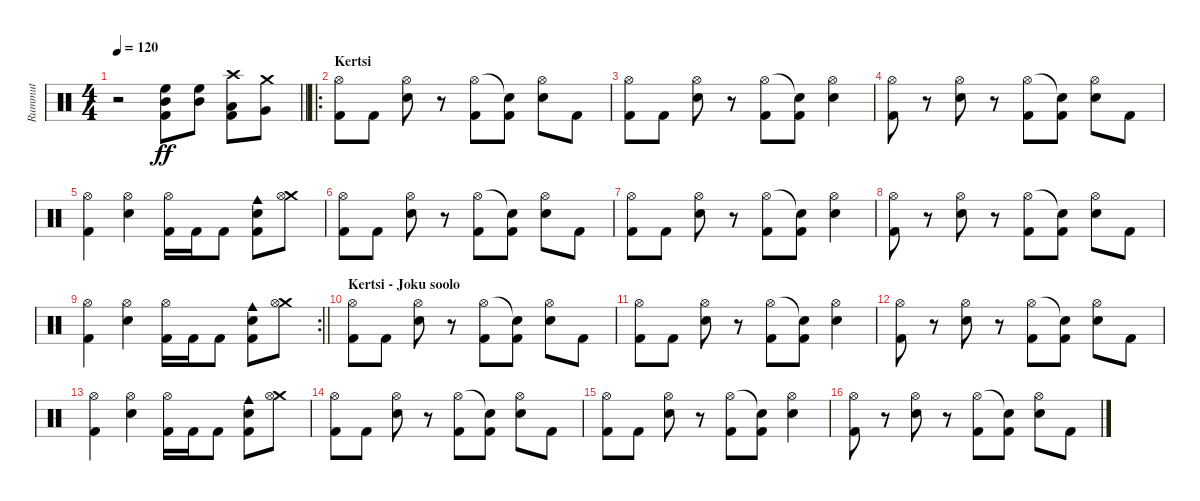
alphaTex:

\track ("Rummut" "Rummut") {instrument percussion}
\staff {score}
\articulation defaults
\ts (4 4)
\tempo 120
\clef neutral
\barLineRight lightlight
\ks c
r.2{dy f} ("Mid Tom (hit)" "High Floor Tom (hit)" "Kick (hit) 2").8{dy ff} ("Mid Tom (hit)" "High Floor Tom (hit)").8 ("Low Tom (hit)" "Kick (hit) 2" "Crash high (hit)").8 ("Very Low Tom (hit)" "Crash medium (hit)").8 |
\ro
\section ("" "Kertsi")
("Hi-Hat (open)" "Kick (hit) 2").8 "Kick (hit) 2".8 ("Hi-Hat (open)" "Snare (hit) 2").8 r.8 ("Hi-Hat (open)" "Kick (hit) 2").8 ("Snare (hit)"{t} "Kick (hit) 2").8 ("Hi-Hat (open)" "Snare (hit) 2").8 "Kick (hit) 2".8 |
("Hi-Hat (open)" "Kick (hit) 2").8 "Kick (hit) 2".8 ("Hi-Hat (open)" "Snare (hit) 2").8 r.8 ("Hi-Hat (open)" "Kick (hit) 2").8 ("Snare (hit)"{t} "Kick (hit) 2").8 ("Hi-Hat (open)" "Snare (hit) 2").4 |
("Hi-Hat (open)" "Kick (hit) 2").8 r.8 ("Hi-Hat (open)" "Snare (hit) 2").8 r.8 ("Hi-Hat (open)" "Kick (hit) 2").8 ("Snare (hit)"{t} "Kick (hit) 2").8 ("Hi-Hat (open)" "Snare (hit) 2").8 "Kick (hit) 2".8 |
("Hi-Hat (open)" "Kick (hit) 2").4 ("Hi-Hat (open)" "Snare (hit) 2").4 ("Hi-Hat (open)" "Kick (hit) 2").16 "Kick (hit) 2".16 "Kick (hit) 2".8 ("Cowbell medium (hit)" "Snare (hit) 2" "Kick (hit) 2").8 ("Crash medium (hit)" "Hi-Hat (open)").8 |
("Hi-Hat (open)" "Kick (hit) 2").8 "Kick (hit) 2".8 ("Hi-Hat (open)" "Snare (hit) 2").8 r.8 ("Hi-Hat (open)" "Kick (hit) 2").8 ("Snare (hit)"{t} "Kick (hit) 2").8 ("Hi-Hat (open)" "Snare (hit) 2").8 "Kick (hit) 2".8 |
("Hi-Hat (open)" "Kick (hit) 2").8 "Kick (hit) 2".8 ("Hi-Hat (open)" "Snare (hit) 2").8 r.8 ("Hi-Hat (open)" "Kick (hit) 2").8 ("Snare (hit)"{t} "Kick (hit) 2").8 ("Hi-Hat (open)" "Snare (hit) 2").4 |
("Hi-Hat (open)" "Kick (hit) 2").8 r.8 ("Hi-Hat (open)" "Snare (hit) 2").8 r.8 ("Hi-Hat (open)" "Kick (hit) 2").8 ("Snare (hit)"{t} "Kick (hit) 2").8 ("Hi-Hat (open)" "Snare (hit) 2").8 "Kick (hit) 2".8 |
\rc 2
\barLineRight lightlight
("Hi-Hat (open)" "Kick (hit) 2").4 ("Hi-Hat (open)" "Snare (hit) 2").4 ("Hi-Hat (open)" "Kick (hit) 2").16 "Kick (hit) 2".16 "Kick (hit) 2".8 ("Cowbell medium (hit)" "Snare (hit) 2" "Kick (hit) 2").8 ("Crash medium (hit)" "Hi-Hat (open)").8 |
\section ("" "Kertsi - Joku soolo")
("Hi-Hat (open)" "Kick (hit) 2").8 "Kick (hit) 2".8 ("Hi-Hat (open)" "Snare (hit) 2").8 r.8 ("Hi-Hat (open)" "Kick (hit) 2").8 ("Snare (hit)"{t} "Kick (hit) 2").8 ("Hi-Hat (open)" "Snare (hit) 2").8 "Kick (hit) 2".8 |
("Hi-Hat (open)" "Kick (hit) 2").8 "Kick (hit) 2".8 ("Hi-Hat (open)" "Snare (hit) 2").8 r.8 ("Hi-Hat (open)" "Kick (hit) 2").8 ("Snare (hit)"{t} "Kick (hit) 2").8 ("Hi-Hat (open)" "Snare (hit) 2").4 |
("Hi-Hat (open)" "Kick (hit) 2").8 r.8 ("Hi-Hat (open)" "Snare (hit) 2").8 r.8 ("Hi-Hat (open)" "Kick (hit) 2").8 ("Snare (hit)"{t} "Kick (hit) 2").8 ("Hi-Hat (open)" "Snare (hit) 2").8 "Kick (hit) 2".8 |
("Hi-Hat (open)" "Kick (hit) 2").4 ("Hi-Hat (open)" "Snare (hit) 2").4 ("Hi-Hat (open)" "Kick (hit) 2").16 "Kick (hit) 2".16 "Kick (hit) 2".8 ("Cowbell medium (hit)" "Snare (hit) 2" "Kick (hit) 2").8 ("Crash medium (hit)" "Hi-Hat (open)").8 |
("Hi-Hat (open)" "Kick (hit) 2").8 "Kick (hit) 2".8 ("Hi-Hat (open)" "Snare (hit) 2").8 r.8 ("Hi-Hat (open)" "Kick (hit) 2").8 ("Snare (hit)"{t} "Kick (hit) 2").8 ("Hi-Hat (open)" "Snare (hit) 2").8 "Kick (hit) 2".8 |
("Hi-Hat (open)" "Kick (hit) 2").8 "Kick (hit) 2".8 ("Hi-Hat (open)" "Snare (hit) 2").8 r.8 ("Hi-Hat (open)" "Kick (hit) 2").8 ("Snare (hit)"{t} "Kick (hit) 2").8 ("Hi-Hat (open)" "Snare (hit) 2").4 |
("Hi-Hat (open)" "Kick (hit) 2").8 r.8 ("Hi-Hat (open)" "Snare (hit) 2").8 r.8 ("Hi-Hat (open)" "Kick (hit) 2").8 ("Snare (hit)"{t} "Kick (hit) 2").8 ("Hi-Hat (open)" "Snare (hit) 2").8 "Kick (hit) 2".8
